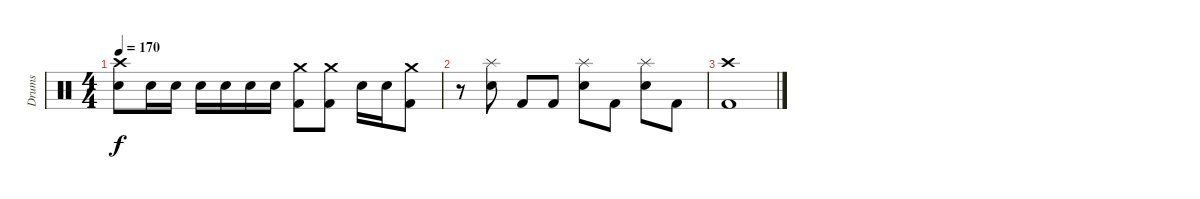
\track ("Drums" "Drums") {instrument percussion}
\staff {score}
\articulation defaults
\ts (4 4)
\tempo 170
\clef neutral
\ks c
("Crash high (hit)" "Electric Snare (hit)").8{dy f} "Electric Snare (hit)".16 "Electric Snare (hit)".16 "Electric Snare (hit)".16 "Electric Snare (hit)".16 "Electric Snare (hit)".16 "Electric Snare (hit)".16 ("Crash medium (hit)" "Kick (hit) 2").8 ("Crash medium (hit)" "Kick (hit) 2").8 "Electric Snare (hit)".16 "Electric Snare (hit)".16 ("Crash medium (hit)" "Kick (hit) 2").8 |
r.8 ("Splash (hit)" "Electric Snare (hit)").8 "Kick (hit) 2".8 "Kick (hit) 2".8 ("Splash (hit)" "Electric Snare (hit)").8 "Kick (hit) 2".8 ("Splash (hit)" "Electric Snare (hit)").8 "Kick (hit) 2".8 |
("Crash high (hit)" "Kick (hit) 2").1
